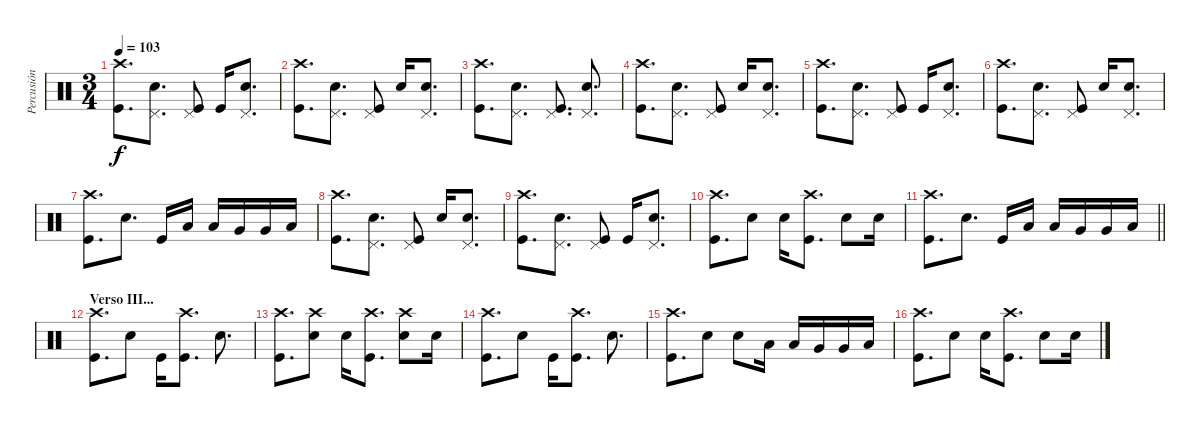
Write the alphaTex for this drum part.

\track ("Percusión" "Percusión") {instrument percussion}
\staff {score}
\articulation defaults
\ts (3 4)
\tempo 103
\clef neutral
\ks c
("Crash high (hit)" "Kick (hit)").8{d dy f} ("Pedal Hi-Hat (hit)" "Snare (hit) 2").8{d} ("Pedal Hi-Hat (hit)" "Kick (hit)").8 "Kick (hit)".16 ("Pedal Hi-Hat (hit)" "Snare (hit) 2").8{d} |
("Crash high (hit)" "Kick (hit)").8{d} ("Pedal Hi-Hat (hit)" "Snare (hit) 2").8{d} ("Pedal Hi-Hat (hit)" "Kick (hit)").8 "Snare (hit) 2".16 ("Pedal Hi-Hat (hit)" "Snare (hit) 2").8{d} |
("Crash high (hit)" "Kick (hit)").8{d} ("Pedal Hi-Hat (hit)" "Snare (hit) 2").8{d} ("Pedal Hi-Hat (hit)" "Kick (hit)").8{d} ("Pedal Hi-Hat (hit)" "Snare (hit) 2").8{d} |
("Crash high (hit)" "Kick (hit)").8{d} ("Pedal Hi-Hat (hit)" "Snare (hit) 2").8{d} ("Pedal Hi-Hat (hit)" "Kick (hit)").8 "Snare (hit) 2".16 ("Pedal Hi-Hat (hit)" "Snare (hit) 2").8{d} |
("Crash high (hit)" "Kick (hit)").8{d} ("Pedal Hi-Hat (hit)" "Snare (hit) 2").8{d} ("Pedal Hi-Hat (hit)" "Kick (hit)").8 "Kick (hit)".16 ("Pedal Hi-Hat (hit)" "Snare (hit) 2").8{d} |
("Crash high (hit)" "Kick (hit)").8{d} ("Pedal Hi-Hat (hit)" "Snare (hit) 2").8{d} ("Pedal Hi-Hat (hit)" "Kick (hit)").8 "Snare (hit) 2".16 ("Pedal Hi-Hat (hit)" "Snare (hit) 2").8{d} |
("Crash high (hit)" "Kick (hit)").8{d} "Snare (hit) 2".8{d} "Kick (hit)".16 "Low Tom (hit)".16 "Low Tom (hit)".16 "Very Low Tom (hit)".16 "Very Low Tom (hit)".16 "Low Floor Tom (hit)".16 |
("Crash high (hit)" "Kick (hit)").8{d} ("Pedal Hi-Hat (hit)" "Snare (hit) 2").8{d} ("Pedal Hi-Hat (hit)" "Kick (hit)").8 "Snare (hit) 2".16 ("Pedal Hi-Hat (hit)" "Snare (hit) 2").8{d} |
("Crash high (hit)" "Kick (hit)").8{d} ("Pedal Hi-Hat (hit)" "Snare (hit) 2").8{d} ("Pedal Hi-Hat (hit)" "Kick (hit)").8 "Kick (hit)".16 ("Pedal Hi-Hat (hit)" "Snare (hit) 2").8{d} |
("Crash high (hit)" "Kick (hit)").8{d} "Snare (hit) 2".8 "Snare (hit) 2".16 ("Crash high (hit)" "Kick (hit)").8{d} "Snare (hit) 2".8 "Snare (hit) 2".16 |
\barLineRight lightlight
("Crash high (hit)" "Kick (hit)").8{d} "Snare (hit) 2".8{d} "Kick (hit)".16 "Low Tom (hit)".16 "Low Tom (hit)".16 "Very Low Tom (hit)".16 "Very Low Tom (hit)".16 "Low Floor Tom (hit)".16 |
\section ("" "Verso III...")
("Crash high (hit)" "Kick (hit)").8{d} "Snare (hit) 2".8 "Kick (hit)".16 ("Crash high (hit)" "Kick (hit)").8{d} "Snare (hit) 2".8{d} |
("Crash high (hit)" "Kick (hit)").8{d} ("Crash high (hit)" "Snare (hit) 2").8 "Snare (hit) 2".16 ("Crash high (hit)" "Kick (hit)").8{d} ("Crash high (hit)" "Snare (hit) 2").8 "Snare (hit) 2".16 |
("Crash high (hit)" "Kick (hit)").8{d} "Snare (hit) 2".8 "Kick (hit)".16 ("Crash high (hit)" "Kick (hit)").8{d} "Snare (hit) 2".8{d} |
("Crash high (hit)" "Kick (hit)").8{d} "Snare (hit) 2".8 "Snare (hit) 2".8 "Low Tom (hit)".16 "Low Tom (hit)".16 "Very Low Tom (hit)".16 "Very Low Tom (hit)".16 "Low Floor Tom (hit)".16 |
("Crash high (hit)" "Kick (hit)").8{d} "Snare (hit) 2".8 "Snare (hit) 2".16 ("Crash high (hit)" "Kick (hit)").8{d} "Snare (hit) 2".8 "Snare (hit) 2".16
